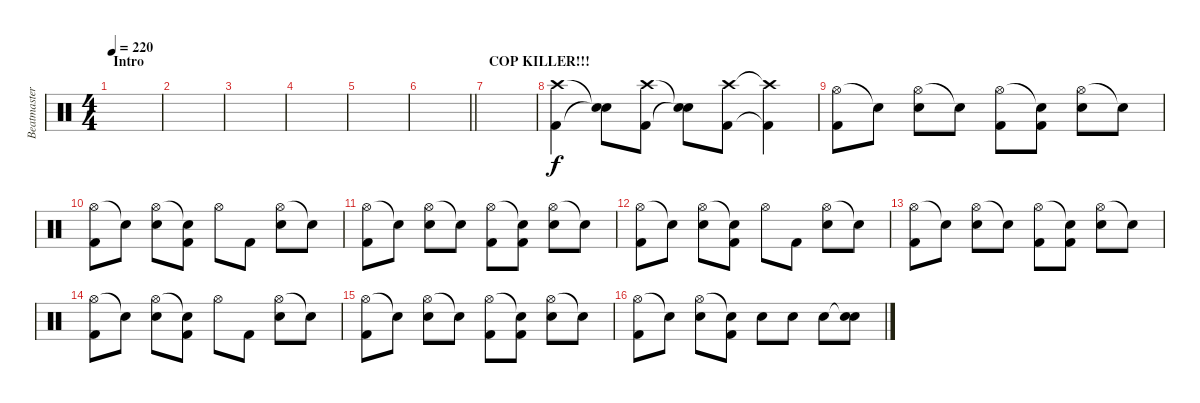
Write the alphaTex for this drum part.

\track ("Beatmaster V" "Beatmaster") {instrument percussion}
\staff {score}
\articulation defaults
\ts (4 4)
\section ("" "Intro")
\tempo 220
\clef neutral
\ks c
|
|
|
|
|
\barLineRight lightlight
|
\section ("" "COP KILLER!!!")
|
("Crash high (hit)" "Kick (hit) 2").4 ("Snare (hit)"{t} "Snare (hit)"{t}).8 ("Crash high (hit)" "Kick (hit) 2").8 ("Snare (hit)"{t} "Snare (hit)"{t}).8 ("Crash high (hit)" "Kick (hit) 2").8 ("Crash high (hit)"{t} "Kick (hit) 2"{t}).4 |
("Hi-Hat (open)" "Kick (hit) 2").8 "Snare (hit)"{t}.8 ("Hi-Hat (open)" "Snare (hit) 2").8 "Snare (hit)"{t}.8 ("Hi-Hat (open)" "Kick (hit) 2").8 ("Snare (hit)"{t} "Kick (hit) 2").8 ("Hi-Hat (open)" "Snare (hit) 2").8 "Snare (hit)"{t}.8 |
("Hi-Hat (open)" "Kick (hit) 2").8 "Snare (hit)"{t}.8 ("Hi-Hat (open)" "Snare (hit) 2").8 ("Snare (hit)"{t} "Kick (hit) 2").8 "Hi-Hat (open)".8 "Kick (hit) 2".8 ("Hi-Hat (open)" "Snare (hit) 2").8 "Snare (hit)"{t}.8 |
("Hi-Hat (open)" "Kick (hit) 2").8 "Snare (hit)"{t}.8 ("Hi-Hat (open)" "Snare (hit) 2").8 "Snare (hit)"{t}.8 ("Hi-Hat (open)" "Kick (hit) 2").8 ("Snare (hit)"{t} "Kick (hit) 2").8 ("Hi-Hat (open)" "Snare (hit) 2").8 "Snare (hit)"{t}.8 |
("Hi-Hat (open)" "Kick (hit) 2").8 "Snare (hit)"{t}.8 ("Hi-Hat (open)" "Snare (hit) 2").8 ("Snare (hit)"{t} "Kick (hit) 2").8 "Hi-Hat (open)".8 "Kick (hit) 2".8 ("Hi-Hat (open)" "Snare (hit) 2").8 "Snare (hit)"{t}.8 |
("Hi-Hat (open)" "Kick (hit) 2").8 "Snare (hit)"{t}.8 ("Hi-Hat (open)" "Snare (hit) 2").8 "Snare (hit)"{t}.8 ("Hi-Hat (open)" "Kick (hit) 2").8 ("Snare (hit)"{t} "Kick (hit) 2").8 ("Hi-Hat (open)" "Snare (hit) 2").8 "Snare (hit)"{t}.8 |
("Hi-Hat (open)" "Kick (hit) 2").8 "Snare (hit)"{t}.8 ("Hi-Hat (open)" "Snare (hit) 2").8 ("Snare (hit)"{t} "Kick (hit) 2").8 "Hi-Hat (open)".8 "Kick (hit) 2".8 ("Hi-Hat (open)" "Snare (hit) 2").8 "Snare (hit)"{t}.8 |
("Hi-Hat (open)" "Kick (hit) 2").8 "Snare (hit)"{t}.8 ("Hi-Hat (open)" "Snare (hit) 2").8 "Snare (hit)"{t}.8 ("Hi-Hat (open)" "Kick (hit) 2").8 ("Snare (hit)"{t} "Kick (hit) 2").8 ("Hi-Hat (open)" "Snare (hit) 2").8 "Snare (hit)"{t}.8 |
("Hi-Hat (open)" "Kick (hit) 2").8 "Snare (hit)"{t}.8 ("Hi-Hat (open)" "Snare (hit) 2").8 ("Snare (hit)"{t} "Kick (hit) 2").8 "Snare (hit) 2".8 "Snare (hit) 2".8 "Snare (hit) 2".8 ("Snare (hit)"{t} "Snare (hit) 2").8
